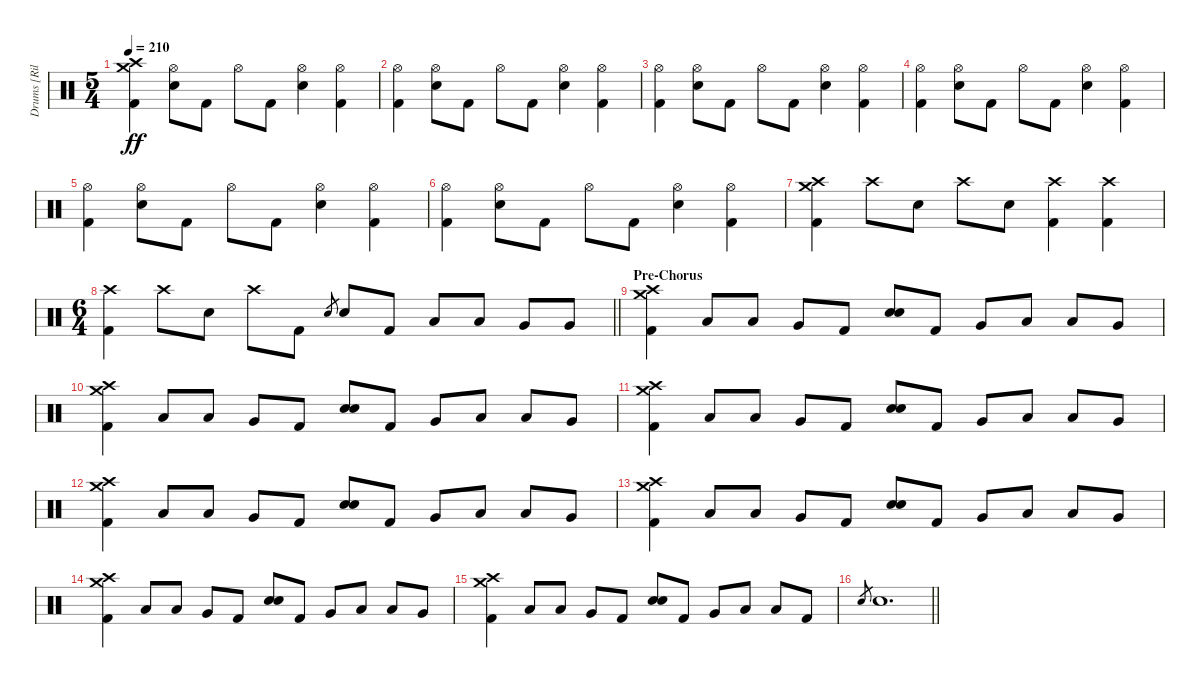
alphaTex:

\track ("Drums [Riley]" "Drums [Ril") {instrument percussion}
\staff {score}
\articulation defaults
\ts (5 4)
\tempo 210
\clef neutral
\ks c
("Crash medium (hit)" "Crash high (hit)" "Kick (hit) 2").4{dy ff} ("Hi-Hat (open)" "Electric Snare (hit)").8 "Kick (hit) 2".8 "Hi-Hat (open)".8 "Kick (hit) 2".8 ("Hi-Hat (open)" "Electric Snare (hit)").4 ("Hi-Hat (open)" "Kick (hit) 2").4 |
("Hi-Hat (open)" "Kick (hit) 2").4 ("Hi-Hat (open)" "Electric Snare (hit)").8 "Kick (hit) 2".8 "Hi-Hat (open)".8 "Kick (hit) 2".8 ("Hi-Hat (open)" "Electric Snare (hit)").4 ("Hi-Hat (open)" "Kick (hit) 2").4 |
("Hi-Hat (open)" "Kick (hit) 2").4 ("Hi-Hat (open)" "Electric Snare (hit)").8 "Kick (hit) 2".8 "Hi-Hat (open)".8 "Kick (hit) 2".8 ("Hi-Hat (open)" "Electric Snare (hit)").4 ("Hi-Hat (open)" "Kick (hit) 2").4 |
("Hi-Hat (open)" "Kick (hit) 2").4 ("Hi-Hat (open)" "Electric Snare (hit)").8 "Kick (hit) 2".8 "Hi-Hat (open)".8 "Kick (hit) 2".8 ("Hi-Hat (open)" "Electric Snare (hit)").4 ("Hi-Hat (open)" "Kick (hit) 2").4 |
("Hi-Hat (open)" "Kick (hit) 2").4 ("Hi-Hat (open)" "Electric Snare (hit)").8 "Kick (hit) 2".8 "Hi-Hat (open)".8 "Kick (hit) 2".8 ("Hi-Hat (open)" "Electric Snare (hit)").4 ("Hi-Hat (open)" "Kick (hit) 2").4 |
("Hi-Hat (open)" "Kick (hit) 2").4 ("Hi-Hat (open)" "Electric Snare (hit)").8 "Kick (hit) 2".8 "Hi-Hat (open)".8 "Kick (hit) 2".8 ("Hi-Hat (open)" "Electric Snare (hit)").4 ("Hi-Hat (open)" "Kick (hit) 2").4 |
("Crash medium (hit)" "Crash high (hit)" "Kick (hit) 2").4 "Crash high (hit)".8 "Electric Snare (hit)".8 "Crash high (hit)".8 "Electric Snare (hit)".8 ("Crash high (hit)" "Kick (hit) 2").4 ("Crash high (hit)" "Kick (hit) 2").4 |
\ts (6 4)
\barLineRight lightlight
("Crash high (hit)" "Kick (hit) 2").4 "Crash high (hit)".8 "Electric Snare (hit)".8 "Crash high (hit)".8 "Kick (hit) 2".8 "Electric Snare (hit)".8{gr} "Electric Snare (hit)".8 "Kick (hit) 2".8 "Low Tom (hit)".8 "Low Tom (hit)".8 "Very Low Tom (hit)".8 "Very Low Tom (hit)".8 |
\section ("" "Pre-Chorus")
("Crash medium (hit)" "Crash high (hit)" "Kick (hit) 2").4 "Low Tom (hit)".8 "Low Tom (hit)".8 "Very Low Tom (hit)".8 "Kick (hit) 2".8 ("Electric Snare (hit)" "Electric Snare (hit)").8{bu 60} "Kick (hit) 2".8 "Very Low Tom (hit)".8 "Low Tom (hit)".8 "Low Tom (hit)".8 "Very Low Tom (hit)".8 |
("Crash medium (hit)" "Crash high (hit)" "Kick (hit) 2").4 "Low Tom (hit)".8 "Low Tom (hit)".8 "Very Low Tom (hit)".8 "Kick (hit) 2".8 ("Electric Snare (hit)" "Electric Snare (hit)").8{bu 60} "Kick (hit) 2".8 "Very Low Tom (hit)".8 "Low Tom (hit)".8 "Low Tom (hit)".8 "Very Low Tom (hit)".8 |
("Crash medium (hit)" "Crash high (hit)" "Kick (hit) 2").4 "Low Tom (hit)".8 "Low Tom (hit)".8 "Very Low Tom (hit)".8 "Kick (hit) 2".8 ("Electric Snare (hit)" "Electric Snare (hit)").8{bu 60} "Kick (hit) 2".8 "Very Low Tom (hit)".8 "Low Tom (hit)".8 "Low Tom (hit)".8 "Very Low Tom (hit)".8 |
("Crash medium (hit)" "Crash high (hit)" "Kick (hit) 2").4 "Low Tom (hit)".8 "Low Tom (hit)".8 "Very Low Tom (hit)".8 "Kick (hit) 2".8 ("Electric Snare (hit)" "Electric Snare (hit)").8{bu 60} "Kick (hit) 2".8 "Very Low Tom (hit)".8 "Low Tom (hit)".8 "Low Tom (hit)".8 "Very Low Tom (hit)".8 |
("Crash medium (hit)" "Crash high (hit)" "Kick (hit) 2").4 "Low Tom (hit)".8 "Low Tom (hit)".8 "Very Low Tom (hit)".8 "Kick (hit) 2".8 ("Electric Snare (hit)" "Electric Snare (hit)").8{bu 60} "Kick (hit) 2".8 "Very Low Tom (hit)".8 "Low Tom (hit)".8 "Low Tom (hit)".8 "Very Low Tom (hit)".8 |
("Crash medium (hit)" "Crash high (hit)" "Kick (hit) 2").4 "Low Tom (hit)".8 "Low Tom (hit)".8 "Very Low Tom (hit)".8 "Kick (hit) 2".8 ("Electric Snare (hit)" "Electric Snare (hit)").8{bu 60} "Kick (hit) 2".8 "Very Low Tom (hit)".8 "Low Tom (hit)".8 "Low Tom (hit)".8 "Very Low Tom (hit)".8 |
("Crash medium (hit)" "Crash high (hit)" "Kick (hit) 2").4 "Low Tom (hit)".8 "Low Tom (hit)".8 "Very Low Tom (hit)".8 "Kick (hit) 2".8 ("Electric Snare (hit)" "Electric Snare (hit)").8{bu 60} "Kick (hit) 2".8 "Very Low Tom (hit)".8 "Low Tom (hit)".8 "Low Tom (hit)".8 "Kick (hit) 2".8 |
\barLineRight lightlight "Electric Snare (hit)".8{gr} "Electric Snare (hit)".1{d}
